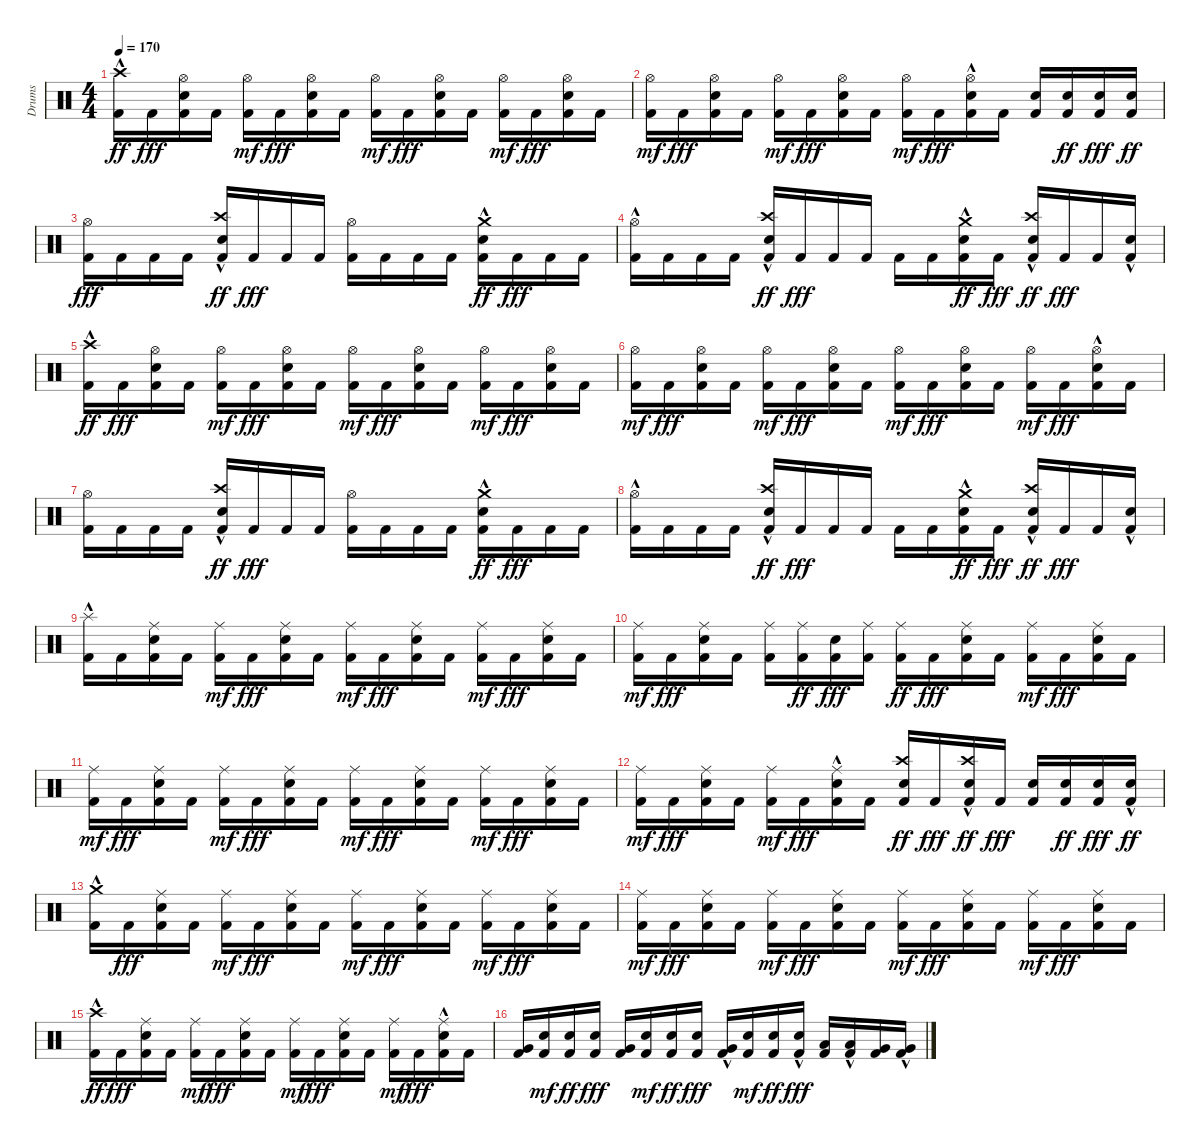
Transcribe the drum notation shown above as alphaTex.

\track ("Drums" "Drums") {instrument percussion}
\staff {score}
\articulation defaults
\ts (4 4)
\tempo 170
\clef neutral
\ks c
("Kick (hit) 2" "Crash high (hit)"{hac}).16{dy ff} "Kick (hit) 2".16{dy fff} ("Kick (hit) 2" "Snare (hit) 2" "Hi-Hat (open)").16 "Kick (hit) 2".16 ("Kick (hit) 2" "Hi-Hat (open)").16{dy mf} "Kick (hit) 2".16{dy fff} ("Kick (hit) 2" "Snare (hit) 2" "Hi-Hat (open)").16 "Kick (hit) 2".16 ("Kick (hit) 2" "Hi-Hat (open)").16{dy mf} "Kick (hit) 2".16{dy fff} ("Kick (hit) 2" "Snare (hit) 2" "Hi-Hat (open)").16 "Kick (hit) 2".16 ("Kick (hit) 2" "Hi-Hat (open)").16{dy mf} "Kick (hit) 2".16{dy fff} ("Kick (hit) 2" "Snare (hit) 2" "Hi-Hat (open)").16 "Kick (hit) 2".16 |
("Kick (hit) 2" "Hi-Hat (open)").16{dy mf} "Kick (hit) 2".16{dy fff} ("Kick (hit) 2" "Snare (hit) 2" "Hi-Hat (open)").16 "Kick (hit) 2".16 ("Kick (hit) 2" "Hi-Hat (open)").16{dy mf} "Kick (hit) 2".16{dy fff} ("Kick (hit) 2" "Snare (hit) 2" "Hi-Hat (open)").16 "Kick (hit) 2".16 ("Kick (hit) 2" "Hi-Hat (open)").16{dy mf} "Kick (hit) 2".16{dy fff} ("Kick (hit) 2" "Snare (hit) 2" "Hi-Hat (open)"{hac}).16 "Kick (hit) 2".16 ("Kick (hit) 2" "Snare (hit) 2").16 ("Kick (hit) 2" "Snare (hit) 2").16{dy ff} ("Kick (hit) 2" "Snare (hit) 2").16{dy fff} ("Kick (hit) 2" "Snare (hit) 2").16{dy ff} |
("Kick (hit) 2" "Hi-Hat (open)").16{dy fff} "Kick (hit) 2".16 "Kick (hit) 2".16 "Kick (hit) 2".16 ("Kick (hit) 2" "Snare (hit) 2" "Crash high (hit)"{hac}).16{dy ff} "Kick (hit) 2".16{dy fff} "Kick (hit) 2".16 "Kick (hit) 2".16 ("Kick (hit) 2" "Hi-Hat (open)").16 "Kick (hit) 2".16 "Kick (hit) 2".16 "Kick (hit) 2".16 ("Kick (hit) 2" "Snare (hit) 2" "Crash medium (hit)"{hac}).16{dy ff} "Kick (hit) 2".16{dy fff} "Kick (hit) 2".16 "Kick (hit) 2".16 |
("Kick (hit) 2" "Hi-Hat (open)"{hac}).16 "Kick (hit) 2".16 "Kick (hit) 2".16 "Kick (hit) 2".16 ("Kick (hit) 2" "Snare (hit) 2"{hac} "Crash high (hit)").16{dy ff} "Kick (hit) 2".16{dy fff} "Kick (hit) 2".16 "Kick (hit) 2".16 "Kick (hit) 2".16 "Kick (hit) 2".16 ("Kick (hit) 2" "Snare (hit) 2" "Crash medium (hit)"{hac}).16{dy ff} "Kick (hit) 2".16{dy fff} ("Kick (hit) 2" "Snare (hit) 2"{hac} "Crash high (hit)").16{dy ff} "Kick (hit) 2".16{dy fff} "Kick (hit) 2".16 ("Kick (hit) 2" "Snare (hit) 2"{hac}).16 |
("Kick (hit) 2" "Crash high (hit)"{hac}).16{dy ff} "Kick (hit) 2".16{dy fff} ("Kick (hit) 2" "Snare (hit) 2" "Hi-Hat (open)").16 "Kick (hit) 2".16 ("Kick (hit) 2" "Hi-Hat (open)").16{dy mf} "Kick (hit) 2".16{dy fff} ("Kick (hit) 2" "Snare (hit) 2" "Hi-Hat (open)").16 "Kick (hit) 2".16 ("Kick (hit) 2" "Hi-Hat (open)").16{dy mf} "Kick (hit) 2".16{dy fff} ("Kick (hit) 2" "Snare (hit) 2" "Hi-Hat (open)").16 "Kick (hit) 2".16 ("Kick (hit) 2" "Hi-Hat (open)").16{dy mf} "Kick (hit) 2".16{dy fff} ("Kick (hit) 2" "Snare (hit) 2" "Hi-Hat (open)").16 "Kick (hit) 2".16 |
("Kick (hit) 2" "Hi-Hat (open)").16{dy mf} "Kick (hit) 2".16{dy fff} ("Kick (hit) 2" "Snare (hit) 2" "Hi-Hat (open)").16 "Kick (hit) 2".16 ("Kick (hit) 2" "Hi-Hat (open)").16{dy mf} "Kick (hit) 2".16{dy fff} ("Kick (hit) 2" "Snare (hit) 2" "Hi-Hat (open)").16 "Kick (hit) 2".16 ("Kick (hit) 2" "Hi-Hat (open)").16{dy mf} "Kick (hit) 2".16{dy fff} ("Kick (hit) 2" "Snare (hit) 2" "Hi-Hat (open)").16 "Kick (hit) 2".16 ("Kick (hit) 2" "Hi-Hat (open)").16{dy mf} "Kick (hit) 2".16{dy fff} ("Kick (hit) 2" "Snare (hit) 2"{hac} "Hi-Hat (open)").16 "Kick (hit) 2".16 |
("Kick (hit) 2" "Hi-Hat (open)").16 "Kick (hit) 2".16 "Kick (hit) 2".16 "Kick (hit) 2".16 ("Kick (hit) 2" "Snare (hit) 2" "Crash high (hit)"{hac}).16{dy ff} "Kick (hit) 2".16{dy fff} "Kick (hit) 2".16 "Kick (hit) 2".16 ("Kick (hit) 2" "Hi-Hat (open)").16 "Kick (hit) 2".16 "Kick (hit) 2".16 "Kick (hit) 2".16 ("Kick (hit) 2" "Snare (hit) 2" "Crash medium (hit)"{hac}).16{dy ff} "Kick (hit) 2".16{dy fff} "Kick (hit) 2".16 "Kick (hit) 2".16 |
("Kick (hit) 2" "Hi-Hat (open)"{hac}).16 "Kick (hit) 2".16 "Kick (hit) 2".16 "Kick (hit) 2".16 ("Kick (hit) 2" "Snare (hit) 2"{hac} "Crash high (hit)").16{dy ff} "Kick (hit) 2".16{dy fff} "Kick (hit) 2".16 "Kick (hit) 2".16 "Kick (hit) 2".16 "Kick (hit) 2".16 ("Kick (hit) 2" "Snare (hit) 2" "Crash medium (hit)"{hac}).16{dy ff} "Kick (hit) 2".16{dy fff} ("Kick (hit) 2" "Snare (hit) 2"{hac} "Crash high (hit)"{hac}).16{dy ff} "Kick (hit) 2".16{dy fff} "Kick (hit) 2".16 ("Kick (hit) 2" "Snare (hit) 2"{hac}).16 |
("Kick (hit) 2" "Splash (hit)"{hac}).16 "Kick (hit) 2".16 ("Kick (hit) 2" "Snare (hit) 2" "Ride (middle)").16 "Kick (hit) 2".16 ("Kick (hit) 2" "Ride (middle)").16{dy mf} "Kick (hit) 2".16{dy fff} ("Kick (hit) 2" "Snare (hit) 2" "Ride (middle)").16 "Kick (hit) 2".16 ("Kick (hit) 2" "Ride (middle)").16{dy mf} "Kick (hit) 2".16{dy fff} ("Kick (hit) 2" "Snare (hit) 2" "Ride (middle)").16 "Kick (hit) 2".16 ("Kick (hit) 2" "Ride (middle)").16{dy mf} "Kick (hit) 2".16{dy fff} ("Kick (hit) 2" "Snare (hit) 2" "Ride (middle)").16 "Kick (hit) 2".16 |
("Kick (hit) 2" "Ride (middle)").16{dy mf} "Kick (hit) 2".16{dy fff} ("Kick (hit) 2" "Snare (hit) 2" "Ride (middle)").16 "Kick (hit) 2".16 ("Kick (hit) 2" "Ride (middle)").16 ("Kick (hit) 2" "Ride (middle)").16{dy ff} ("Kick (hit) 2" "Snare (hit) 2").16{dy fff} ("Kick (hit) 2" "Ride (middle)").16 ("Kick (hit) 2" "Ride (middle)").16{dy ff} "Kick (hit) 2".16{dy fff} ("Kick (hit) 2" "Snare (hit) 2" "Ride (middle)").16 "Kick (hit) 2".16 ("Kick (hit) 2" "Ride (middle)").16{dy mf} "Kick (hit) 2".16{dy fff} ("Kick (hit) 2" "Snare (hit) 2" "Ride (middle)").16 "Kick (hit) 2".16 |
("Kick (hit) 2" "Ride (middle)").16{dy mf} "Kick (hit) 2".16{dy fff} ("Kick (hit) 2" "Snare (hit) 2" "Ride (middle)").16 "Kick (hit) 2".16 ("Kick (hit) 2" "Ride (middle)").16{dy mf} "Kick (hit) 2".16{dy fff} ("Kick (hit) 2" "Snare (hit) 2" "Ride (middle)").16 "Kick (hit) 2".16 ("Kick (hit) 2" "Ride (middle)").16{dy mf} "Kick (hit) 2".16{dy fff} ("Kick (hit) 2" "Snare (hit) 2" "Ride (middle)").16 "Kick (hit) 2".16 ("Kick (hit) 2" "Ride (middle)").16{dy mf} "Kick (hit) 2".16{dy fff} ("Kick (hit) 2" "Snare (hit) 2" "Ride (middle)").16 "Kick (hit) 2".16 |
("Kick (hit) 2" "Ride (middle)").16{dy mf} "Kick (hit) 2".16{dy fff} ("Kick (hit) 2" "Snare (hit) 2" "Ride (middle)").16 "Kick (hit) 2".16 ("Kick (hit) 2" "Ride (middle)").16{dy mf} "Kick (hit) 2".16{dy fff} ("Kick (hit) 2" "Snare (hit) 2" "Ride (middle)"{hac}).16 "Kick (hit) 2".16 ("Kick (hit) 2" "Snare (hit) 2" "Crash high (hit)").16{dy ff} "Kick (hit) 2".16{dy fff} ("Kick (hit) 2" "Snare (hit) 2" "Crash high (hit)"{hac}).16{dy ff} "Kick (hit) 2".16{dy fff} ("Kick (hit) 2" "Snare (hit) 2").16 ("Kick (hit) 2" "Snare (hit) 2").16{dy ff} ("Kick (hit) 2" "Snare (hit) 2").16{dy fff} ("Kick (hit) 2" "Snare (hit) 2"{hac}).16{dy ff} |
("Kick (hit) 2" "Crash medium (hit)"{hac}).16 "Kick (hit) 2".16{dy fff} ("Kick (hit) 2" "Snare (hit) 2" "Ride (middle)").16 "Kick (hit) 2".16 ("Kick (hit) 2" "Ride (middle)").16{dy mf} "Kick (hit) 2".16{dy fff} ("Kick (hit) 2" "Snare (hit) 2" "Ride (middle)").16 "Kick (hit) 2".16 ("Kick (hit) 2" "Ride (middle)").16{dy mf} "Kick (hit) 2".16{dy fff} ("Kick (hit) 2" "Snare (hit) 2" "Ride (middle)").16 "Kick (hit) 2".16 ("Kick (hit) 2" "Ride (middle)").16{dy mf} "Kick (hit) 2".16{dy fff} ("Kick (hit) 2" "Snare (hit) 2" "Ride (middle)").16 "Kick (hit) 2".16 |
("Kick (hit) 2" "Ride (middle)").16{dy mf} "Kick (hit) 2".16{dy fff} ("Kick (hit) 2" "Snare (hit) 2" "Ride (middle)").16 "Kick (hit) 2".16 ("Kick (hit) 2" "Ride (middle)").16{dy mf} "Kick (hit) 2".16{dy fff} ("Kick (hit) 2" "Snare (hit) 2" "Ride (middle)").16 "Kick (hit) 2".16 ("Kick (hit) 2" "Ride (middle)").16{dy mf} "Kick (hit) 2".16{dy fff} ("Kick (hit) 2" "Snare (hit) 2" "Ride (middle)").16 "Kick (hit) 2".16 ("Kick (hit) 2" "Ride (middle)").16{dy mf} "Kick (hit) 2".16{dy fff} ("Kick (hit) 2" "Snare (hit) 2" "Ride (middle)").16 "Kick (hit) 2".16 |
("Kick (hit) 2" "Crash high (hit)"{hac}).16{dy ff} "Kick (hit) 2".16{dy fff} ("Kick (hit) 2" "Snare (hit) 2" "Ride (middle)").16 "Kick (hit) 2".16 ("Kick (hit) 2" "Ride (middle)").16{dy mf} "Kick (hit) 2".16{dy fff} ("Kick (hit) 2" "Snare (hit) 2" "Ride (middle)").16 "Kick (hit) 2".16 ("Kick (hit) 2" "Ride (middle)").16{dy mf} "Kick (hit) 2".16{dy fff} ("Kick (hit) 2" "Snare (hit) 2" "Ride (middle)").16 "Kick (hit) 2".16 ("Kick (hit) 2" "Ride (middle)").16{dy mf} "Kick (hit) 2".16{dy fff} ("Kick (hit) 2" "Snare (hit) 2"{hac} "Ride (middle)"{hac}).16 "Kick (hit) 2".16 |
("Kick (hit) 2" "Very Low Tom (hit)").16 ("Kick (hit) 2" "Snare (hit) 2").16{dy mf} ("Kick (hit) 2" "Snare (hit) 2").16{dy ff} ("Kick (hit) 2" "Snare (hit) 2").16{dy fff} ("Kick (hit) 2" "Very Low Tom (hit)").16 ("Kick (hit) 2" "Snare (hit) 2").16{dy mf} ("Kick (hit) 2" "Snare (hit) 2").16{dy ff} ("Kick (hit) 2" "Snare (hit) 2").16{dy fff} ("Kick (hit) 2" "Very Low Tom (hit)"{hac}).16 ("Kick (hit) 2" "Snare (hit) 2").16{dy mf} ("Kick (hit) 2" "Snare (hit) 2").16{dy ff} ("Kick (hit) 2" "Snare (hit) 2"{hac}).16{dy fff} ("Kick (hit) 2" "Low Tom (hit)").16 ("Kick (hit) 2" "Low Tom (hit)"{hac}).16 ("Kick (hit) 2" "Very Low Tom (hit)").16 ("Kick (hit) 2" "Very Low Tom (hit)"{hac}).16
